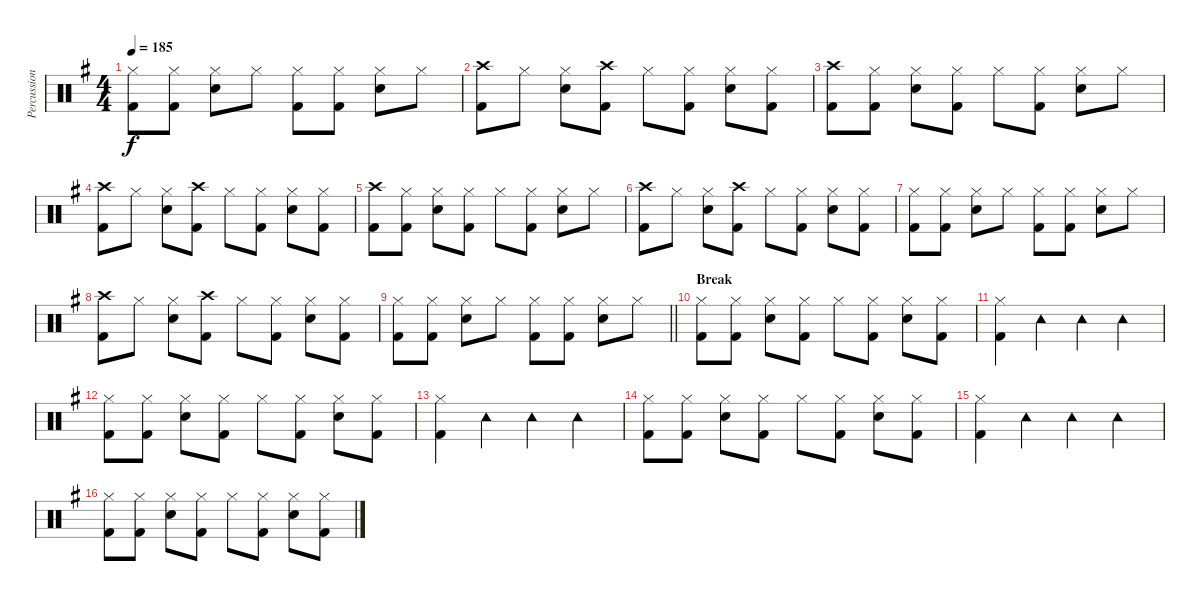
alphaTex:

\track ("Percussion" "Percussion") {instrument percussion}
\staff {score}
\articulation defaults
\ts (4 4)
\tempo 185
\clef neutral
\ks g
("Hi-Hat (closed)" "Kick (hit) 2").8{dy f} ("Hi-Hat (closed)" "Kick (hit) 2").8 ("Hi-Hat (closed)" "Snare (hit) 2").8 "Hi-Hat (closed)".8 ("Hi-Hat (closed)" "Kick (hit) 2").8 ("Hi-Hat (closed)" "Kick (hit) 2").8 ("Hi-Hat (closed)" "Snare (hit) 2").8 "Hi-Hat (closed)".8 |
("Crash high (hit)" "Kick (hit) 2").8 "Hi-Hat (closed)".8 ("Hi-Hat (closed)" "Snare (hit) 2").8 ("Crash high (hit)" "Kick (hit) 2").8 "Hi-Hat (closed)".8 ("Hi-Hat (closed)" "Kick (hit) 2").8 ("Hi-Hat (closed)" "Snare (hit) 2").8 ("Hi-Hat (closed)" "Kick (hit) 2").8 |
("Crash high (hit)" "Kick (hit) 2").8 ("Hi-Hat (closed)" "Kick (hit) 2").8 ("Hi-Hat (closed)" "Snare (hit) 2").8 ("Hi-Hat (closed)" "Kick (hit) 2").8 "Hi-Hat (closed)".8 ("Hi-Hat (closed)" "Kick (hit) 2").8 ("Hi-Hat (closed)" "Snare (hit) 2").8 "Hi-Hat (closed)".8 |
("Crash high (hit)" "Kick (hit) 2").8 "Hi-Hat (closed)".8 ("Hi-Hat (closed)" "Snare (hit) 2").8 ("Crash high (hit)" "Kick (hit) 2").8 "Hi-Hat (closed)".8 ("Hi-Hat (closed)" "Kick (hit) 2").8 ("Hi-Hat (closed)" "Snare (hit) 2").8 ("Hi-Hat (closed)" "Kick (hit) 2").8 |
("Kick (hit) 2" "Crash high (hit)").8 ("Kick (hit) 2" "Hi-Hat (closed)").8 ("Snare (hit) 2" "Hi-Hat (closed)").8 ("Kick (hit) 2" "Hi-Hat (closed)").8 "Hi-Hat (closed)".8 ("Kick (hit) 2" "Hi-Hat (closed)").8 ("Snare (hit) 2" "Hi-Hat (closed)").8 "Hi-Hat (closed)".8 |
("Crash high (hit)" "Kick (hit) 2").8 "Hi-Hat (closed)".8 ("Hi-Hat (closed)" "Snare (hit) 2").8 ("Crash high (hit)" "Kick (hit) 2").8 "Hi-Hat (closed)".8 ("Hi-Hat (closed)" "Kick (hit) 2").8 ("Hi-Hat (closed)" "Snare (hit) 2").8 ("Hi-Hat (closed)" "Kick (hit) 2").8 |
("Hi-Hat (closed)" "Kick (hit) 2").8 ("Hi-Hat (closed)" "Kick (hit) 2").8 ("Hi-Hat (closed)" "Snare (hit) 2").8 "Hi-Hat (closed)".8 ("Hi-Hat (closed)" "Kick (hit) 2").8 ("Hi-Hat (closed)" "Kick (hit) 2").8 ("Hi-Hat (closed)" "Snare (hit) 2").8 "Hi-Hat (closed)".8 |
("Crash high (hit)" "Kick (hit) 2").8 "Hi-Hat (closed)".8 ("Hi-Hat (closed)" "Snare (hit) 2").8 ("Crash high (hit)" "Kick (hit) 2").8 "Hi-Hat (closed)".8 ("Hi-Hat (closed)" "Kick (hit) 2").8 ("Hi-Hat (closed)" "Snare (hit) 2").8 ("Hi-Hat (closed)" "Kick (hit) 2").8 |
\barLineRight lightlight
("Hi-Hat (closed)" "Kick (hit) 2").8 ("Hi-Hat (closed)" "Kick (hit) 2").8 ("Hi-Hat (closed)" "Snare (hit) 2").8 "Hi-Hat (closed)".8 ("Hi-Hat (closed)" "Kick (hit) 2").8 ("Hi-Hat (closed)" "Kick (hit) 2").8 ("Hi-Hat (closed)" "Snare (hit) 2").8 "Hi-Hat (closed)".8 |
\section ("" "Break")
("Hi-Hat (closed)" "Kick (hit) 2").8 ("Hi-Hat (closed)" "Kick (hit) 2").8 ("Hi-Hat (closed)" "Snare (hit) 2").8 ("Hi-Hat (closed)" "Kick (hit) 2").8 "Hi-Hat (closed)".8 ("Hi-Hat (closed)" "Kick (hit) 2").8 ("Hi-Hat (closed)" "Snare (hit) 2").8 ("Hi-Hat (closed)" "Kick (hit) 2").8 |
("Hi-Hat (closed)" "Kick (hit) 2").4 "Tambourine (hit)".4 "Tambourine (hit)".4 "Tambourine (hit)".4 |
("Hi-Hat (closed)" "Kick (hit) 2").8 ("Hi-Hat (closed)" "Kick (hit) 2").8 ("Hi-Hat (closed)" "Snare (hit) 2").8 ("Hi-Hat (closed)" "Kick (hit) 2").8 "Hi-Hat (closed)".8 ("Hi-Hat (closed)" "Kick (hit) 2").8 ("Hi-Hat (closed)" "Snare (hit) 2").8 ("Hi-Hat (closed)" "Kick (hit) 2").8 |
("Hi-Hat (closed)" "Kick (hit) 2").4 "Tambourine (hit)".4 "Tambourine (hit)".4 "Tambourine (hit)".4 |
("Hi-Hat (closed)" "Kick (hit) 2").8 ("Hi-Hat (closed)" "Kick (hit) 2").8 ("Hi-Hat (closed)" "Snare (hit) 2").8 ("Hi-Hat (closed)" "Kick (hit) 2").8 "Hi-Hat (closed)".8 ("Hi-Hat (closed)" "Kick (hit) 2").8 ("Hi-Hat (closed)" "Snare (hit) 2").8 ("Hi-Hat (closed)" "Kick (hit) 2").8 |
("Hi-Hat (closed)" "Kick (hit) 2").4 "Tambourine (hit)".4 "Tambourine (hit)".4 "Tambourine (hit)".4 |
("Hi-Hat (closed)" "Kick (hit) 2").8 ("Hi-Hat (closed)" "Kick (hit) 2").8 ("Hi-Hat (closed)" "Snare (hit) 2").8 ("Hi-Hat (closed)" "Kick (hit) 2").8 "Hi-Hat (closed)".8 ("Hi-Hat (closed)" "Kick (hit) 2").8 ("Hi-Hat (closed)" "Snare (hit) 2").8 ("Hi-Hat (closed)" "Kick (hit) 2").8
